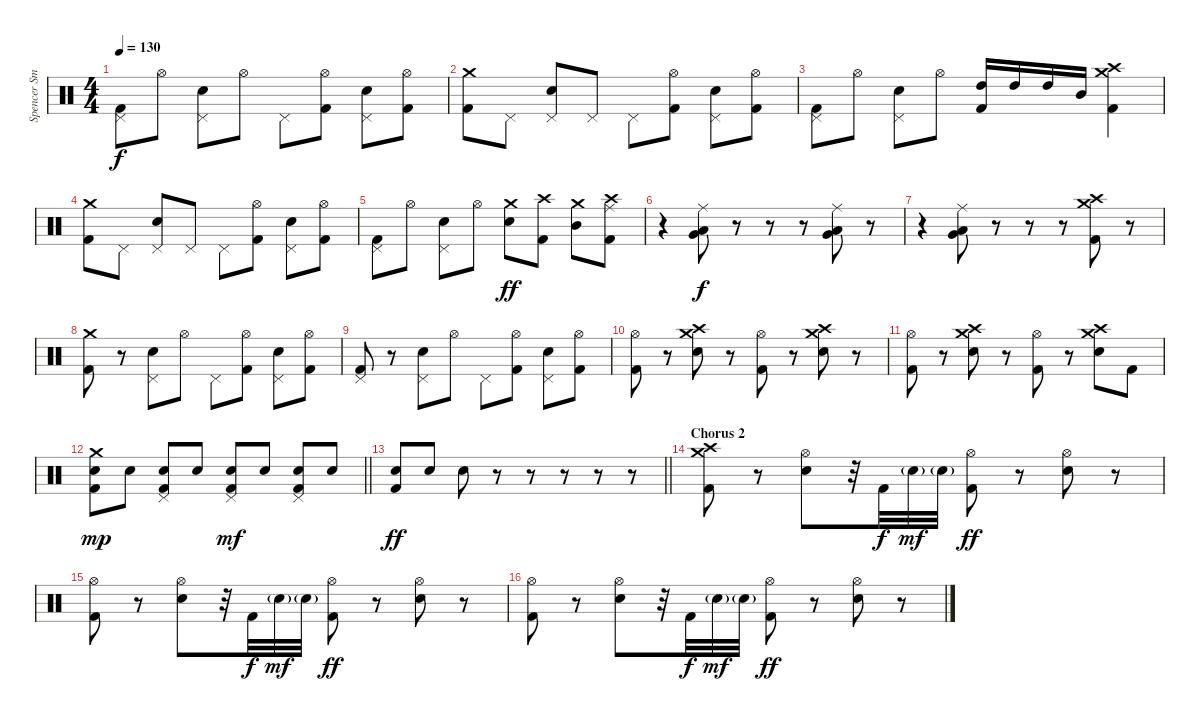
\track ("Spencer Smith (Drums)" "Spencer Sm") {instrument percussion}
\staff {score}
\articulation defaults
\ts (4 4)
\tempo 130
\clef neutral
\ks c
("Pedal Hi-Hat (hit)" "Kick (hit) 2").8{dy f} "Hi-Hat (open)".8 ("Pedal Hi-Hat (hit)" "Electric Snare (hit)").8 "Hi-Hat (open)".8 "Pedal Hi-Hat (hit)".8 ("Hi-Hat (open)" "Kick (hit) 2").8 ("Pedal Hi-Hat (hit)" "Electric Snare (hit)").8 ("Hi-Hat (open)" "Kick (hit) 2").8 |
("Crash medium (hit)" "Kick (hit) 2").8 "Pedal Hi-Hat (hit)".8 ("Pedal Hi-Hat (hit)" "Electric Snare (hit)").8 "Pedal Hi-Hat (hit)".8 "Pedal Hi-Hat (hit)".8 ("Hi-Hat (open)" "Kick (hit) 2").8 ("Pedal Hi-Hat (hit)" "Electric Snare (hit)").8 ("Hi-Hat (open)" "Kick (hit) 2").8 |
("Pedal Hi-Hat (hit)" "Kick (hit) 2").8 "Hi-Hat (open)".8 ("Pedal Hi-Hat (hit)" "Electric Snare (hit)").8 "Hi-Hat (open)".8 ("High Tom (hit)" "Kick (hit) 2").16 "High Tom (hit)".16 "High Tom (hit)".16 "Mid Tom (hit)".16 ("Crash high (hit)" "Crash medium (hit)" "Kick (hit) 2").4 |
("Crash medium (hit)" "Kick (hit) 2").8 "Pedal Hi-Hat (hit)".8 ("Pedal Hi-Hat (hit)" "Electric Snare (hit)").8 "Pedal Hi-Hat (hit)".8 "Pedal Hi-Hat (hit)".8 ("Hi-Hat (open)" "Kick (hit) 2").8 ("Pedal Hi-Hat (hit)" "Electric Snare (hit)").8 ("Hi-Hat (open)" "Kick (hit) 2").8 |
("Pedal Hi-Hat (hit)" "Kick (hit) 2").8 "Hi-Hat (open)".8 ("Pedal Hi-Hat (hit)" "Electric Snare (hit)").8 "Hi-Hat (open)".8 ("Crash medium (hit)" "Electric Snare (hit)").8{dy ff} ("Crash high (hit)" "Kick (hit) 2").8 ("Crash medium (hit)" "Mid Tom (hit)").8 ("Ride (middle)" "Crash high (hit)" "Kick (hit) 2").8 |
r.4 ("Ride (middle)" "Very Low Tom (hit)" "Low Tom (hit)").8{dy f} r.8 r.8 r.8 ("Ride (middle)" "Very Low Tom (hit)" "Low Tom (hit)").8 r.8 |
r.4 ("Ride (middle)" "Very Low Tom (hit)" "Low Tom (hit)").8 r.8 r.8 r.8 ("Crash high (hit)" "Crash medium (hit)" "Kick (hit) 2").8 r.8 |
("Crash medium (hit)" "Kick (hit) 2").8 r.8 ("Pedal Hi-Hat (hit)" "Electric Snare (hit)").8 "Hi-Hat (open)".8 "Pedal Hi-Hat (hit)".8 ("Hi-Hat (open)" "Kick (hit) 2").8 ("Pedal Hi-Hat (hit)" "Electric Snare (hit)").8 ("Hi-Hat (open)" "Kick (hit) 2").8 |
("Pedal Hi-Hat (hit)" "Kick (hit) 2").8 r.8 ("Pedal Hi-Hat (hit)" "Electric Snare (hit)").8 "Hi-Hat (open)".8 "Pedal Hi-Hat (hit)".8 ("Hi-Hat (open)" "Kick (hit) 2").8 ("Pedal Hi-Hat (hit)" "Electric Snare (hit)").8 ("Hi-Hat (open)" "Kick (hit) 2").8 |
("Hi-Hat (open)" "Kick (hit) 2").8 r.8 ("Crash high (hit)" "Crash medium (hit)" "Electric Snare (hit)").8 r.8 ("Hi-Hat (open)" "Kick (hit) 2").8 r.8 ("Crash high (hit)" "Crash medium (hit)" "Electric Snare (hit)").8 r.8 |
("Hi-Hat (open)" "Kick (hit) 2").8 r.8 ("Crash high (hit)" "Crash medium (hit)" "Electric Snare (hit)").8 r.8 ("Hi-Hat (open)" "Kick (hit) 2").8 r.8 ("Crash high (hit)" "Crash medium (hit)" "Electric Snare (hit)").8 "Kick (hit) 2".8 |
\barLineRight lightlight
("Crash medium (hit)" "Electric Snare (hit)" "Kick (hit) 2").8{dy mp} "Electric Snare (hit)".8 ("Pedal Hi-Hat (hit)" "Electric Snare (hit)" "Kick (hit) 2").8 "Electric Snare (hit)".8 ("Pedal Hi-Hat (hit)" "Electric Snare (hit)" "Kick (hit) 2").8{dy mf} "Electric Snare (hit)".8 ("Pedal Hi-Hat (hit)" "Electric Snare (hit)" "Kick (hit) 2").8 "Electric Snare (hit)".8 |
\barLineRight lightlight
("Electric Snare (hit)" "Kick (hit) 2").8{dy ff} "Electric Snare (hit)".8 "Electric Snare (hit)".8 r.8 r.8 r.8 r.8 r.8 |
\section ("" "Chorus 2")
("Crash medium (hit)" "Crash high (hit)" "Kick (hit) 2").8 r.8 ("Hi-Hat (open)" "Electric Snare (hit)").8 r.32 "Kick (hit) 2".32{dy f} "Electric Snare (hit)"{g}.32{dy mf} "Electric Snare (hit)"{g}.32 ("Hi-Hat (open)" "Kick (hit) 2").8{dy ff} r.8 ("Hi-Hat (open)" "Electric Snare (hit)").8 r.8 |
("Hi-Hat (open)" "Kick (hit) 2").8 r.8 ("Hi-Hat (open)" "Electric Snare (hit)").8 r.32 "Kick (hit) 2".32{dy f} "Electric Snare (hit)"{g}.32{dy mf} "Electric Snare (hit)"{g}.32 ("Hi-Hat (open)" "Kick (hit) 2").8{dy ff} r.8 ("Hi-Hat (open)" "Electric Snare (hit)").8 r.8 |
("Hi-Hat (open)" "Kick (hit) 2").8 r.8 ("Hi-Hat (open)" "Electric Snare (hit)").8 r.32 "Kick (hit) 2".32{dy f} "Electric Snare (hit)"{g}.32{dy mf} "Electric Snare (hit)"{g}.32 ("Hi-Hat (open)" "Kick (hit) 2").8{dy ff} r.8 ("Hi-Hat (open)" "Electric Snare (hit)").8 r.8
